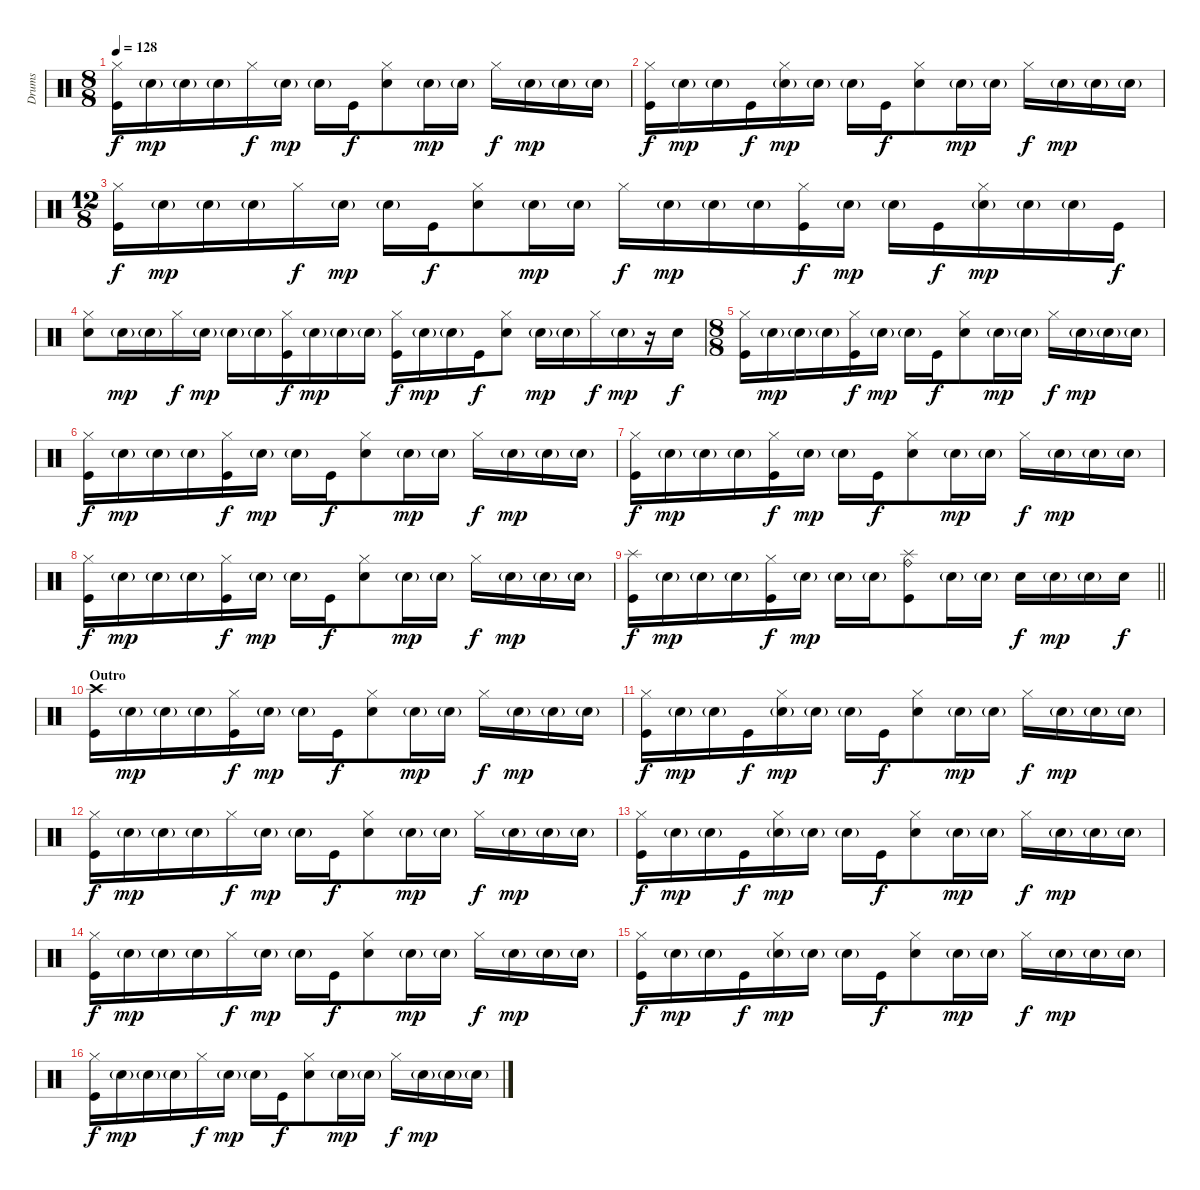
\track ("Drums" "Drums") {instrument percussion}
\staff {score}
\articulation defaults
\ts (8 8)
\tempo 128
\clef neutral
\ks c
("Kick (hit)" "Hi-Hat (closed)").16{dy f} "Electric Snare (hit)"{g}.16{dy mp} "Electric Snare (hit)"{g}.16 "Electric Snare (hit)"{g}.16 "Hi-Hat (closed)".16{dy f} "Electric Snare (hit)"{g}.16{dy mp} "Electric Snare (hit)"{g}.16 "Kick (hit)".16{dy f} ("Electric Snare (hit)" "Hi-Hat (closed)").8 "Electric Snare (hit)"{g}.16{dy mp} "Electric Snare (hit)"{g}.16 "Hi-Hat (closed)".16{dy f} "Electric Snare (hit)"{g}.16{dy mp} "Electric Snare (hit)"{g}.16 "Electric Snare (hit)"{g}.16 |
("Kick (hit)" "Hi-Hat (closed)").16{dy f} "Electric Snare (hit)"{g}.16{dy mp} "Electric Snare (hit)"{g}.16 "Kick (hit)".16{dy f} ("Electric Snare (hit)"{g} "Hi-Hat (closed)").16{dy mp} "Electric Snare (hit)"{g}.16 "Electric Snare (hit)"{g}.16 "Kick (hit)".16{dy f} ("Electric Snare (hit)" "Hi-Hat (closed)").8 "Electric Snare (hit)"{g}.16{dy mp} "Electric Snare (hit)"{g}.16 "Hi-Hat (closed)".16{dy f} "Electric Snare (hit)"{g}.16{dy mp} "Electric Snare (hit)"{g}.16 "Electric Snare (hit)"{g}.16 |
\ts (12 8)
("Kick (hit)" "Hi-Hat (closed)").16{dy f} "Electric Snare (hit)"{g}.16{dy mp} "Electric Snare (hit)"{g}.16 "Electric Snare (hit)"{g}.16 "Hi-Hat (closed)".16{dy f} "Electric Snare (hit)"{g}.16{dy mp} "Electric Snare (hit)"{g}.16 "Kick (hit)".16{dy f} ("Electric Snare (hit)" "Hi-Hat (closed)").8 "Electric Snare (hit)"{g}.16{dy mp} "Electric Snare (hit)"{g}.16 "Hi-Hat (closed)".16{dy f} "Electric Snare (hit)"{g}.16{dy mp} "Electric Snare (hit)"{g}.16 "Electric Snare (hit)"{g}.16 ("Kick (hit)" "Hi-Hat (closed)").16{dy f} "Electric Snare (hit)"{g}.16{dy mp} "Electric Snare (hit)"{g}.16 "Kick (hit)".16{dy f} ("Electric Snare (hit)"{g} "Hi-Hat (closed)").16{dy mp} "Electric Snare (hit)"{g}.16 "Electric Snare (hit)"{g}.16 "Kick (hit)".16{dy f} |
("Electric Snare (hit)" "Hi-Hat (closed)").8 "Electric Snare (hit)"{g}.16{dy mp} "Electric Snare (hit)"{g}.16 "Hi-Hat (closed)".16{dy f} "Electric Snare (hit)"{g}.16{dy mp} "Electric Snare (hit)"{g}.16 "Electric Snare (hit)"{g}.16 ("Kick (hit)" "Hi-Hat (closed)").16{dy f} "Electric Snare (hit)"{g}.16{dy mp} "Electric Snare (hit)"{g}.16 "Electric Snare (hit)"{g}.16 ("Kick (hit)" "Hi-Hat (closed)").16{dy f} "Electric Snare (hit)"{g}.16{dy mp} "Electric Snare (hit)"{g}.16 "Kick (hit)".16{dy f} ("Electric Snare (hit)" "Hi-Hat (closed)").8 "Electric Snare (hit)"{g}.16{dy mp} "Electric Snare (hit)"{g}.16 "Hi-Hat (closed)".16{dy f} "Electric Snare (hit)"{g}.16{dy mp} r.16 "Electric Snare (hit)".16{dy f} |
\ts (8 8)
("Kick (hit)" "Hi-Hat (closed)").16 "Electric Snare (hit)"{g}.16{dy mp} "Electric Snare (hit)"{g}.16 "Electric Snare (hit)"{g}.16 ("Kick (hit)" "Hi-Hat (closed)").16{dy f} "Electric Snare (hit)"{g}.16{dy mp} "Electric Snare (hit)"{g}.16 "Kick (hit)".16{dy f} ("Electric Snare (hit)" "Hi-Hat (closed)").8 "Electric Snare (hit)"{g}.16{dy mp} "Electric Snare (hit)"{g}.16 "Hi-Hat (closed)".16{dy f} "Electric Snare (hit)"{g}.16{dy mp} "Electric Snare (hit)"{g}.16 "Electric Snare (hit)"{g}.16 |
("Kick (hit)" "Hi-Hat (closed)").16{dy f} "Electric Snare (hit)"{g}.16{dy mp} "Electric Snare (hit)"{g}.16 "Electric Snare (hit)"{g}.16 ("Kick (hit)" "Hi-Hat (closed)").16{dy f} "Electric Snare (hit)"{g}.16{dy mp} "Electric Snare (hit)"{g}.16 "Kick (hit)".16{dy f} ("Electric Snare (hit)" "Hi-Hat (closed)").8 "Electric Snare (hit)"{g}.16{dy mp} "Electric Snare (hit)"{g}.16 "Hi-Hat (closed)".16{dy f} "Electric Snare (hit)"{g}.16{dy mp} "Electric Snare (hit)"{g}.16 "Electric Snare (hit)"{g}.16 |
("Kick (hit)" "Hi-Hat (closed)").16{dy f} "Electric Snare (hit)"{g}.16{dy mp} "Electric Snare (hit)"{g}.16 "Electric Snare (hit)"{g}.16 ("Kick (hit)" "Hi-Hat (closed)").16{dy f} "Electric Snare (hit)"{g}.16{dy mp} "Electric Snare (hit)"{g}.16 "Kick (hit)".16{dy f} ("Electric Snare (hit)" "Hi-Hat (closed)").8 "Electric Snare (hit)"{g}.16{dy mp} "Electric Snare (hit)"{g}.16 "Hi-Hat (closed)".16{dy f} "Electric Snare (hit)"{g}.16{dy mp} "Electric Snare (hit)"{g}.16 "Electric Snare (hit)"{g}.16 |
("Kick (hit)" "Hi-Hat (closed)").16{dy f} "Electric Snare (hit)"{g}.16{dy mp} "Electric Snare (hit)"{g}.16 "Electric Snare (hit)"{g}.16 ("Kick (hit)" "Hi-Hat (closed)").16{dy f} "Electric Snare (hit)"{g}.16{dy mp} "Electric Snare (hit)"{g}.16 "Kick (hit)".16{dy f} ("Electric Snare (hit)" "Hi-Hat (closed)").8 "Electric Snare (hit)"{g}.16{dy mp} "Electric Snare (hit)"{g}.16 "Hi-Hat (closed)".16{dy f} "Electric Snare (hit)"{g}.16{dy mp} "Electric Snare (hit)"{g}.16 "Electric Snare (hit)"{g}.16 |
\barLineRight lightlight
("Kick (hit)" "Splash (hit)").16{dy f} "Electric Snare (hit)"{g}.16{dy mp} "Electric Snare (hit)"{g}.16 "Electric Snare (hit)"{g}.16 ("Kick (hit)" "Hi-Hat (closed)").16{dy f} "Electric Snare (hit)"{g}.16{dy mp} "Electric Snare (hit)"{g}.16 "Electric Snare (hit)"{g}.16 ("Kick (hit)" "Ride (bell)" "Splash (hit)").8 "Electric Snare (hit)"{g}.16 "Electric Snare (hit)"{g}.16 "Electric Snare (hit)".16{dy f} "Electric Snare (hit)"{g}.16{dy mp} "Electric Snare (hit)"{g}.16 "Electric Snare (hit)".16{dy f} |
\section ("" "Outro")
("Kick (hit)" "Crash high (hit)").16 "Electric Snare (hit)"{g}.16{dy mp} "Electric Snare (hit)"{g}.16 "Electric Snare (hit)"{g}.16 ("Kick (hit)" "Hi-Hat (closed)").16{dy f} "Electric Snare (hit)"{g}.16{dy mp} "Electric Snare (hit)"{g}.16 "Kick (hit)".16{dy f} ("Electric Snare (hit)" "Hi-Hat (closed)").8 "Electric Snare (hit)"{g}.16{dy mp} "Electric Snare (hit)"{g}.16 "Hi-Hat (closed)".16{dy f} "Electric Snare (hit)"{g}.16{dy mp} "Electric Snare (hit)"{g}.16 "Electric Snare (hit)"{g}.16 |
("Kick (hit)" "Hi-Hat (closed)").16{dy f} "Electric Snare (hit)"{g}.16{dy mp} "Electric Snare (hit)"{g}.16 "Kick (hit)".16{dy f} ("Electric Snare (hit)"{g} "Hi-Hat (closed)").16{dy mp} "Electric Snare (hit)"{g}.16 "Electric Snare (hit)"{g}.16 "Kick (hit)".16{dy f} ("Electric Snare (hit)" "Hi-Hat (closed)").8 "Electric Snare (hit)"{g}.16{dy mp} "Electric Snare (hit)"{g}.16 "Hi-Hat (closed)".16{dy f} "Electric Snare (hit)"{g}.16{dy mp} "Electric Snare (hit)"{g}.16 "Electric Snare (hit)"{g}.16 |
("Kick (hit)" "Hi-Hat (closed)").16{dy f} "Electric Snare (hit)"{g}.16{dy mp} "Electric Snare (hit)"{g}.16 "Electric Snare (hit)"{g}.16 "Hi-Hat (closed)".16{dy f} "Electric Snare (hit)"{g}.16{dy mp} "Electric Snare (hit)"{g}.16 "Kick (hit)".16{dy f} ("Electric Snare (hit)" "Hi-Hat (closed)").8 "Electric Snare (hit)"{g}.16{dy mp} "Electric Snare (hit)"{g}.16 "Hi-Hat (closed)".16{dy f} "Electric Snare (hit)"{g}.16{dy mp} "Electric Snare (hit)"{g}.16 "Electric Snare (hit)"{g}.16 |
("Kick (hit)" "Hi-Hat (closed)").16{dy f} "Electric Snare (hit)"{g}.16{dy mp} "Electric Snare (hit)"{g}.16 "Kick (hit)".16{dy f} ("Electric Snare (hit)"{g} "Hi-Hat (closed)").16{dy mp} "Electric Snare (hit)"{g}.16 "Electric Snare (hit)"{g}.16 "Kick (hit)".16{dy f} ("Electric Snare (hit)" "Hi-Hat (closed)").8 "Electric Snare (hit)"{g}.16{dy mp} "Electric Snare (hit)"{g}.16 "Hi-Hat (closed)".16{dy f} "Electric Snare (hit)"{g}.16{dy mp} "Electric Snare (hit)"{g}.16 "Electric Snare (hit)"{g}.16 |
("Kick (hit)" "Hi-Hat (closed)").16{dy f} "Electric Snare (hit)"{g}.16{dy mp} "Electric Snare (hit)"{g}.16 "Electric Snare (hit)"{g}.16 "Hi-Hat (closed)".16{dy f} "Electric Snare (hit)"{g}.16{dy mp} "Electric Snare (hit)"{g}.16 "Kick (hit)".16{dy f} ("Electric Snare (hit)" "Hi-Hat (closed)").8 "Electric Snare (hit)"{g}.16{dy mp} "Electric Snare (hit)"{g}.16 "Hi-Hat (closed)".16{dy f} "Electric Snare (hit)"{g}.16{dy mp} "Electric Snare (hit)"{g}.16 "Electric Snare (hit)"{g}.16 |
("Kick (hit)" "Hi-Hat (closed)").16{dy f} "Electric Snare (hit)"{g}.16{dy mp} "Electric Snare (hit)"{g}.16 "Kick (hit)".16{dy f} ("Electric Snare (hit)"{g} "Hi-Hat (closed)").16{dy mp} "Electric Snare (hit)"{g}.16 "Electric Snare (hit)"{g}.16 "Kick (hit)".16{dy f} ("Electric Snare (hit)" "Hi-Hat (closed)").8 "Electric Snare (hit)"{g}.16{dy mp} "Electric Snare (hit)"{g}.16 "Hi-Hat (closed)".16{dy f} "Electric Snare (hit)"{g}.16{dy mp} "Electric Snare (hit)"{g}.16 "Electric Snare (hit)"{g}.16 |
("Kick (hit)" "Hi-Hat (closed)").16{dy f} "Electric Snare (hit)"{g}.16{dy mp} "Electric Snare (hit)"{g}.16 "Electric Snare (hit)"{g}.16 "Hi-Hat (closed)".16{dy f} "Electric Snare (hit)"{g}.16{dy mp} "Electric Snare (hit)"{g}.16 "Kick (hit)".16{dy f} ("Electric Snare (hit)" "Hi-Hat (closed)").8 "Electric Snare (hit)"{g}.16{dy mp} "Electric Snare (hit)"{g}.16 "Hi-Hat (closed)".16{dy f} "Electric Snare (hit)"{g}.16{dy mp} "Electric Snare (hit)"{g}.16 "Electric Snare (hit)"{g}.16
